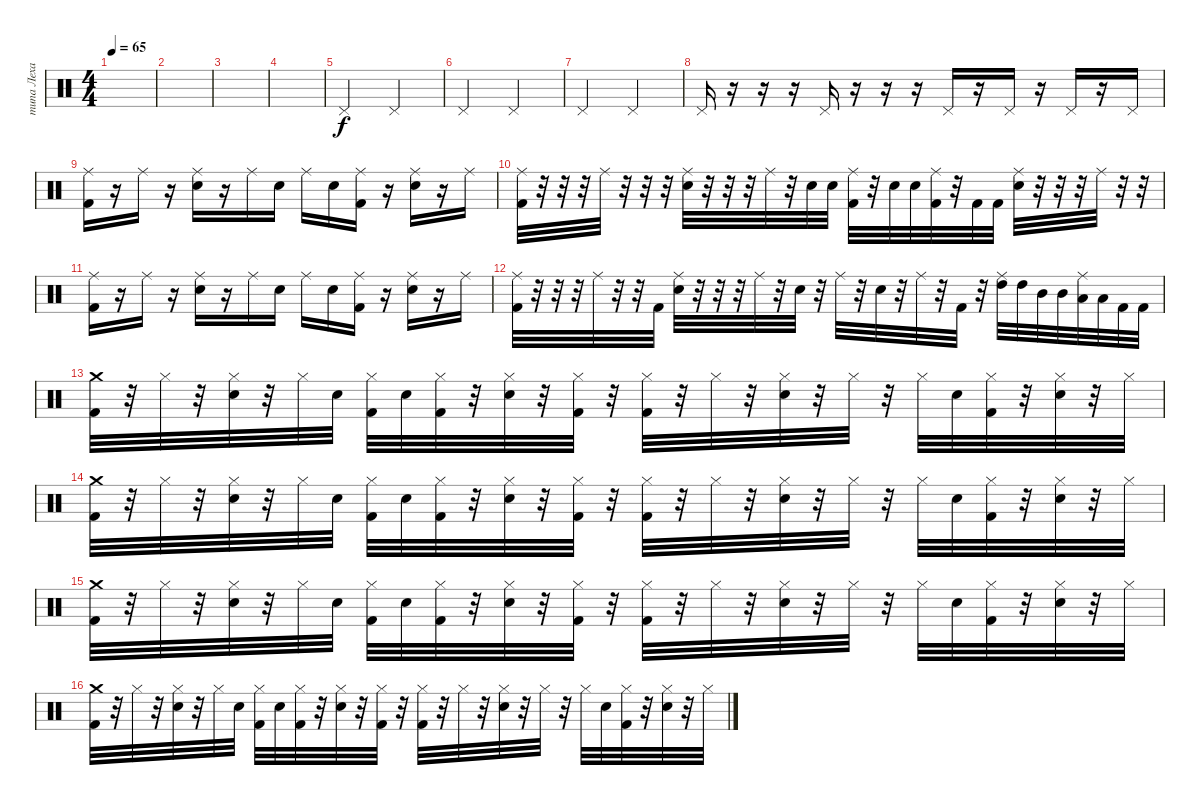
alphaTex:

\track ("типа Леха" "типа Леха") {instrument percussion}
\staff {score}
\articulation defaults
\ts (4 4)
\tempo 65
\clef neutral
\ks c
|
|
|
|
"Pedal Hi-Hat (hit)".2 "Pedal Hi-Hat (hit)".2 |
"Pedal Hi-Hat (hit)".2 "Pedal Hi-Hat (hit)".2 |
"Pedal Hi-Hat (hit)".2 "Pedal Hi-Hat (hit)".2 |
"Pedal Hi-Hat (hit)".16 r.16 r.16 r.16 "Pedal Hi-Hat (hit)".16 r.16 r.16 r.16 "Pedal Hi-Hat (hit)".16 r.16 "Pedal Hi-Hat (hit)".16 r.16 "Pedal Hi-Hat (hit)".16 r.16 "Pedal Hi-Hat (hit)".16 |
("Kick (hit) 2" "Ride (middle)").16 r.16 "Ride (middle)".16 r.16 ("Electric Snare (hit)" "Ride (middle)").16 r.16 "Ride (middle)".16 "Electric Snare (hit)".16 "Ride (middle)".16 "Electric Snare (hit)".16 ("Kick (hit) 2" "Ride (middle)").16 r.16 ("Electric Snare (hit)" "Ride (middle)").16 r.16 "Ride (middle)".16 |
("Kick (hit) 2" "Ride (middle)").32 r.32 r.32 r.32 "Ride (middle)".32 r.32 r.32 r.32 ("Electric Snare (hit)" "Ride (middle)").32 r.32 r.32 r.32 "Ride (middle)".32 r.32 "Electric Snare (hit)".32 "Electric Snare (hit)".32 ("Kick (hit) 2" "Ride (middle)").32 r.32 "Electric Snare (hit)".32 "Electric Snare (hit)".32 ("Kick (hit) 2" "Ride (middle)").32 r.32 "Kick (hit) 2".32 "Kick (hit) 2".32 ("Electric Snare (hit)" "Ride (middle)").32 r.32 r.32 r.32 "Ride (middle)".32 r.32 r.32 |
("Kick (hit) 2" "Ride (middle)").16 r.16 "Ride (middle)".16 r.16 ("Electric Snare (hit)" "Ride (middle)").16 r.16 "Ride (middle)".16 "Electric Snare (hit)".16 "Ride (middle)".16 "Electric Snare (hit)".16 ("Kick (hit) 2" "Ride (middle)").16 r.16 ("Electric Snare (hit)" "Ride (middle)").16 r.16 "Ride (middle)".16 |
("Kick (hit) 2" "Ride (middle)").32 r.32 r.32 r.32 "Ride (middle)".32 r.32 r.32 "Kick (hit) 2".32 ("Electric Snare (hit)" "Ride (middle)").32 r.32 r.32 r.32 "Ride (middle)".32 r.32 "Electric Snare (hit)".32 r.32 "Ride (middle)".32 r.32 "Electric Snare (hit)".32 r.32 "Ride (middle)".32 r.32 "Kick (hit) 2".32 r.32 ("High Tom (hit)" "Ride (middle)").32 "High Tom (hit)".32 "Mid Tom (hit)".32 "Mid Tom (hit)".32 ("Low Tom (hit)" "Ride (middle)").32 "Low Tom (hit)".32 "Kick (hit) 2".32 "Kick (hit) 2".32 |
("Kick (hit) 2" "Crash medium (hit)").32 r.32 "Hi-Hat (closed)".32 r.32 ("Electric Snare (hit)" "Hi-Hat (closed)").32 r.32 "Hi-Hat (closed)".32 "Electric Snare (hit)".32 ("Kick (hit) 2" "Hi-Hat (closed)").32 "Electric Snare (hit)".32 ("Kick (hit) 2" "Hi-Hat (closed)").32 r.32 ("Electric Snare (hit)" "Hi-Hat (closed)").32 r.32 ("Kick (hit) 2" "Hi-Hat (closed)").32 r.32 ("Kick (hit) 2" "Hi-Hat (closed)").32 r.32 "Hi-Hat (closed)".32 r.32 ("Electric Snare (hit)" "Hi-Hat (closed)").32 r.32 "Hi-Hat (closed)".32 r.32 "Hi-Hat (closed)".32 "Electric Snare (hit)".32 ("Kick (hit) 2" "Hi-Hat (closed)").32 r.32 ("Electric Snare (hit)" "Hi-Hat (closed)").32 r.32 "Hi-Hat (closed)".32 |
("Kick (hit) 2" "Crash medium (hit)").32 r.32 "Hi-Hat (closed)".32 r.32 ("Electric Snare (hit)" "Hi-Hat (closed)").32 r.32 "Hi-Hat (closed)".32 "Electric Snare (hit)".32 ("Kick (hit) 2" "Hi-Hat (closed)").32 "Electric Snare (hit)".32 ("Kick (hit) 2" "Hi-Hat (closed)").32 r.32 ("Electric Snare (hit)" "Hi-Hat (closed)").32 r.32 ("Kick (hit) 2" "Hi-Hat (closed)").32 r.32 ("Kick (hit) 2" "Hi-Hat (closed)").32 r.32 "Hi-Hat (closed)".32 r.32 ("Electric Snare (hit)" "Hi-Hat (closed)").32 r.32 "Hi-Hat (closed)".32 r.32 "Hi-Hat (closed)".32 "Electric Snare (hit)".32 ("Kick (hit) 2" "Hi-Hat (closed)").32 r.32 ("Electric Snare (hit)" "Hi-Hat (closed)").32 r.32 "Hi-Hat (closed)".32 |
("Kick (hit) 2" "Crash medium (hit)").32 r.32 "Hi-Hat (closed)".32 r.32 ("Electric Snare (hit)" "Hi-Hat (closed)").32 r.32 "Hi-Hat (closed)".32 "Electric Snare (hit)".32 ("Kick (hit) 2" "Hi-Hat (closed)").32 "Electric Snare (hit)".32 ("Kick (hit) 2" "Hi-Hat (closed)").32 r.32 ("Electric Snare (hit)" "Hi-Hat (closed)").32 r.32 ("Kick (hit) 2" "Hi-Hat (closed)").32 r.32 ("Kick (hit) 2" "Hi-Hat (closed)").32 r.32 "Hi-Hat (closed)".32 r.32 ("Electric Snare (hit)" "Hi-Hat (closed)").32 r.32 "Hi-Hat (closed)".32 r.32 "Hi-Hat (closed)".32 "Electric Snare (hit)".32 ("Kick (hit) 2" "Hi-Hat (closed)").32 r.32 ("Electric Snare (hit)" "Hi-Hat (closed)").32 r.32 "Hi-Hat (closed)".32 |
("Kick (hit) 2" "Crash medium (hit)").32 r.32 "Hi-Hat (closed)".32 r.32 ("Electric Snare (hit)" "Hi-Hat (closed)").32 r.32 "Hi-Hat (closed)".32 "Electric Snare (hit)".32 ("Kick (hit) 2" "Hi-Hat (closed)").32 "Electric Snare (hit)".32 ("Kick (hit) 2" "Hi-Hat (closed)").32 r.32 ("Electric Snare (hit)" "Hi-Hat (closed)").32 r.32 ("Kick (hit) 2" "Hi-Hat (closed)").32 r.32 ("Kick (hit) 2" "Hi-Hat (closed)").32 r.32 "Hi-Hat (closed)".32 r.32 ("Electric Snare (hit)" "Hi-Hat (closed)").32 r.32 "Hi-Hat (closed)".32 r.32 "Hi-Hat (closed)".32 "Electric Snare (hit)".32 ("Kick (hit) 2" "Hi-Hat (closed)").32 r.32 ("Electric Snare (hit)" "Hi-Hat (closed)").32 r.32 "Hi-Hat (closed)".32
